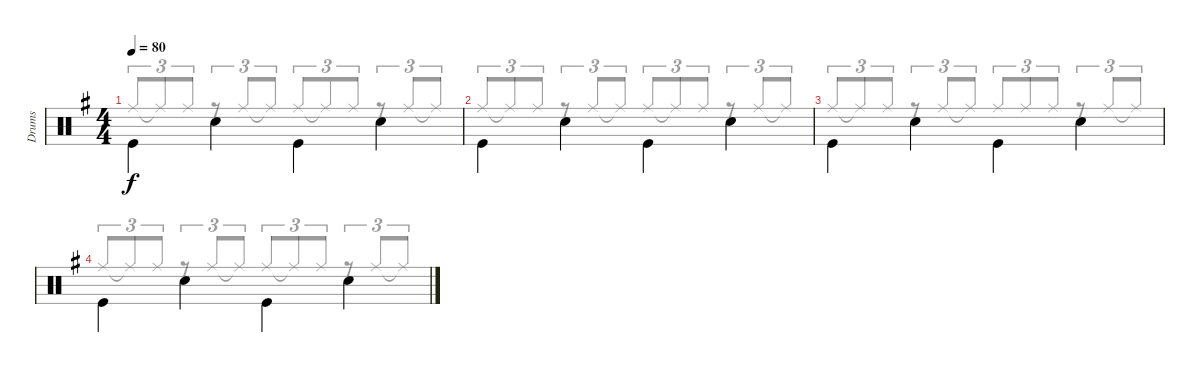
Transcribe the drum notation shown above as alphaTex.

\track ("Drums" "Drums") {instrument percussion}
\staff {score}
\articulation defaults
\voice
\ts (4 4)
\tempo 80
\clef neutral
\ks g "Kick (hit)".4{dy f beam Down} "Snare (hit) 2".4{beam Down} "Kick (hit)".4{beam Down} "Snare (hit) 2".4{beam Down}
|
"Kick (hit)".4{beam Down} "Snare (hit) 2".4{beam Down} "Kick (hit)".4{beam Down} "Snare (hit) 2".4{beam Down} |
"Kick (hit)".4{beam Down} "Snare (hit) 2".4{beam Down} "Kick (hit)".4{beam Down} "Snare (hit) 2".4{beam Down} |
"Kick (hit)".4{beam Down} "Snare (hit) 2".4{beam Down} "Kick (hit)".4{beam Down} "Snare (hit) 2".4{beam Down}
\voice
\clef neutral
\ottava regular
\simile none
\ks g "Ride (middle)".8{tu (3 2) dy f beam Up} "Ride (middle)"{t}.8{tu (3 2) beam Up} "Ride (middle)".8{tu (3 2) beam Up}
r.8{tu (3 2) beam Up} "Ride (middle)".8{tu (3 2) beam Up} "Ride (middle)"{t}.8{tu (3 2) beam Up} "Ride (middle)".8{tu (3 2) beam Up} "Ride (middle)"{t}.8{tu (3 2) beam Up} "Ride (middle)".8{tu (3 2) beam Up} r.8{tu (3 2) beam Up} "Ride (middle)".8{tu (3 2) beam Up} "Ride (middle)"{t}.8{tu (3 2) beam Up} |
"Ride (middle)".8{tu (3 2) beam Up} "Ride (middle)"{t}.8{tu (3 2) beam Up} "Ride (middle)".8{tu (3 2) beam Up} r.8{tu (3 2) beam Up} "Ride (middle)".8{tu (3 2) beam Up} "Ride (middle)"{t}.8{tu (3 2) beam Up} "Ride (middle)".8{tu (3 2) beam Up} "Ride (middle)"{t}.8{tu (3 2) beam Up} "Ride (middle)".8{tu (3 2) beam Up} r.8{tu (3 2) beam Up} "Ride (middle)".8{tu (3 2) beam Up} "Ride (middle)"{t}.8{tu (3 2) beam Up} |
"Ride (middle)".8{tu (3 2) beam Up} "Ride (middle)"{t}.8{tu (3 2) beam Up} "Ride (middle)".8{tu (3 2) beam Up} r.8{tu (3 2) beam Up} "Ride (middle)".8{tu (3 2) beam Up} "Ride (middle)"{t}.8{tu (3 2) beam Up} "Ride (middle)".8{tu (3 2) beam Up} "Ride (middle)".8{tu (3 2) beam Up} "Ride (middle)".8{tu (3 2) beam Up} r.8{tu (3 2) beam Up} "Ride (middle)".8{tu (3 2) beam Up} "Ride (middle)"{t}.8{tu (3 2) beam Up} |
"Ride (middle)".8{tu (3 2) beam Up} "Ride (middle)"{t}.8{tu (3 2) beam Up} "Ride (middle)".8{tu (3 2) beam Up} r.8{tu (3 2) beam Up} "Ride (middle)".8{tu (3 2) beam Up} "Ride (middle)"{t}.8{tu (3 2) beam Up} "Ride (middle)".8{tu (3 2) beam Up} "Ride (middle)"{t}.8{tu (3 2) beam Up} "Ride (middle)".8{tu (3 2) beam Up} r.8{tu (3 2) beam Up} "Ride (middle)".8{tu (3 2) beam Up} "Ride (middle)"{t}.8{tu (3 2) beam Up}
